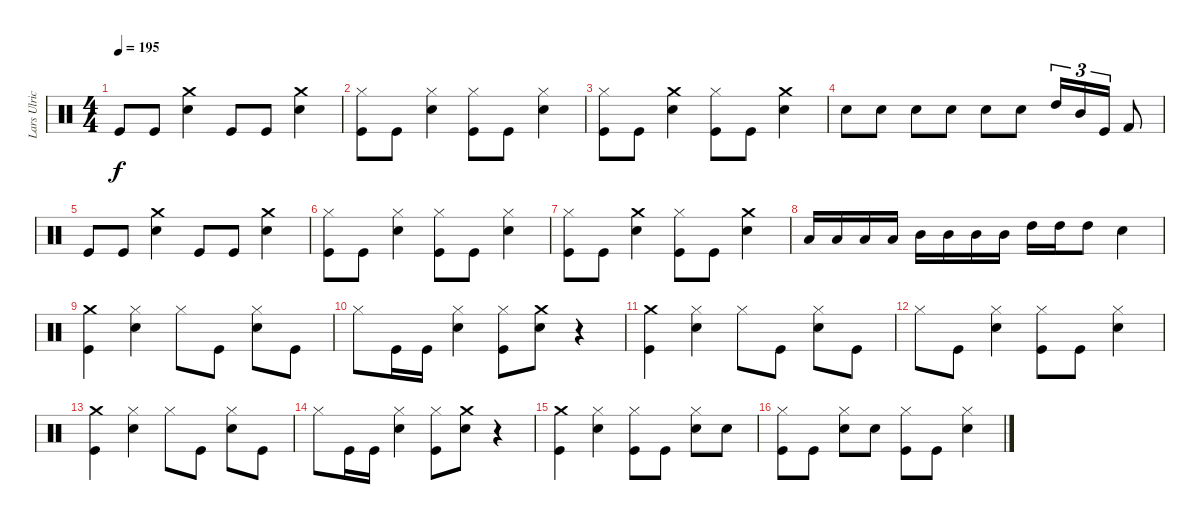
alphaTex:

\track ("Lars Ulrich (Drums)" "Lars Ulric") {instrument percussion}
\staff {score}
\articulation defaults
\ts (4 4)
\tempo 195
\clef neutral
\ks c "Kick (hit)".8{dy f} "Kick (hit)".8
("Crash medium (hit)" "Snare (hit) 2").4 "Kick (hit)".8 "Kick (hit)".8 ("Crash medium (hit)" "Snare (hit) 2").4 |
("Kick (hit)" "Hi-Hat (closed)").8 "Kick (hit)".8 ("Snare (hit) 2" "Hi-Hat (closed)").4 ("Kick (hit)" "Hi-Hat (closed)").8 "Kick (hit)".8 ("Snare (hit) 2" "Hi-Hat (closed)").4 |
("Kick (hit)" "Hi-Hat (closed)").8 "Kick (hit)".8 ("Snare (hit) 2" "Crash medium (hit)").4 ("Kick (hit)" "Hi-Hat (closed)").8 "Kick (hit)".8 ("Crash medium (hit)" "Snare (hit) 2").4 |
"Snare (hit) 2".8 "Snare (hit) 2".8 "Snare (hit) 2".8 "Snare (hit) 2".8 "Snare (hit) 2".8 "Snare (hit) 2".8 "High Tom (hit)".16{tu (3 2)} "Mid Tom (hit)".16{tu (3 2)} "Kick (hit)".16{tu (3 2)} "Kick (hit) 2".8 |
"Kick (hit)".8 "Kick (hit)".8 ("Crash medium (hit)" "Snare (hit) 2").4 "Kick (hit)".8 "Kick (hit)".8 ("Crash medium (hit)" "Snare (hit) 2").4 |
("Kick (hit)" "Hi-Hat (closed)").8 "Kick (hit)".8 ("Snare (hit) 2" "Hi-Hat (closed)").4 ("Kick (hit)" "Hi-Hat (closed)").8 "Kick (hit)".8 ("Snare (hit) 2" "Hi-Hat (closed)").4 |
("Kick (hit)" "Hi-Hat (closed)").8 "Kick (hit)".8 ("Snare (hit) 2" "Crash medium (hit)").4 ("Kick (hit)" "Hi-Hat (closed)").8 "Kick (hit)".8 ("Crash medium (hit)" "Snare (hit) 2").4 |
"Low Tom (hit)".16 "Low Tom (hit)".16 "Low Tom (hit)".16 "Low Tom (hit)".16 "Mid Tom (hit)".16 "Mid Tom (hit)".16 "Mid Tom (hit)".16 "Mid Tom (hit)".16 "High Tom (hit)".16 "High Tom (hit)".16 "High Tom (hit)".8 "Snare (hit) 2".4 |
("Kick (hit)" "Crash medium (hit)").4 ("Hi-Hat (closed)" "Snare (hit) 2").4 "Hi-Hat (closed)".8 "Kick (hit)".8 ("Snare (hit) 2" "Hi-Hat (closed)").8 "Kick (hit)".8 |
"Hi-Hat (closed)".8 "Kick (hit)".16 "Kick (hit)".16 ("Snare (hit) 2" "Hi-Hat (closed)").4 ("Kick (hit)" "Hi-Hat (closed)").8 ("Snare (hit) 2" "Crash medium (hit)").8 r.4 |
("Kick (hit)" "Crash medium (hit)").4 ("Hi-Hat (closed)" "Snare (hit) 2").4 "Hi-Hat (closed)".8 "Kick (hit)".8 ("Snare (hit) 2" "Hi-Hat (closed)").8 "Kick (hit)".8 |
"Hi-Hat (closed)".8 "Kick (hit)".8 ("Snare (hit) 2" "Hi-Hat (closed)").4 ("Hi-Hat (closed)" "Kick (hit)").8 "Kick (hit)".8 ("Snare (hit) 2" "Hi-Hat (closed)").4 |
("Kick (hit)" "Crash medium (hit)").4 ("Hi-Hat (closed)" "Snare (hit) 2").4 "Hi-Hat (closed)".8 "Kick (hit)".8 ("Snare (hit) 2" "Hi-Hat (closed)").8 "Kick (hit)".8 |
"Hi-Hat (closed)".8 "Kick (hit)".16 "Kick (hit)".16 ("Snare (hit) 2" "Hi-Hat (closed)").4 ("Kick (hit)" "Hi-Hat (closed)").8 ("Snare (hit) 2" "Crash medium (hit)").8 r.4 |
("Kick (hit)" "Crash medium (hit)").4 ("Hi-Hat (closed)" "Snare (hit) 2").4 ("Kick (hit)" "Hi-Hat (closed)").8 "Kick (hit)".8 ("Hi-Hat (closed)" "Snare (hit) 2").8 "Snare (hit) 2".8 |
("Kick (hit)" "Hi-Hat (closed)").8 "Kick (hit)".8 ("Hi-Hat (closed)" "Snare (hit) 2").8 "Snare (hit) 2".8 ("Kick (hit)" "Hi-Hat (closed)").8 "Kick (hit)".8 ("Snare (hit) 2" "Hi-Hat (closed)").4
